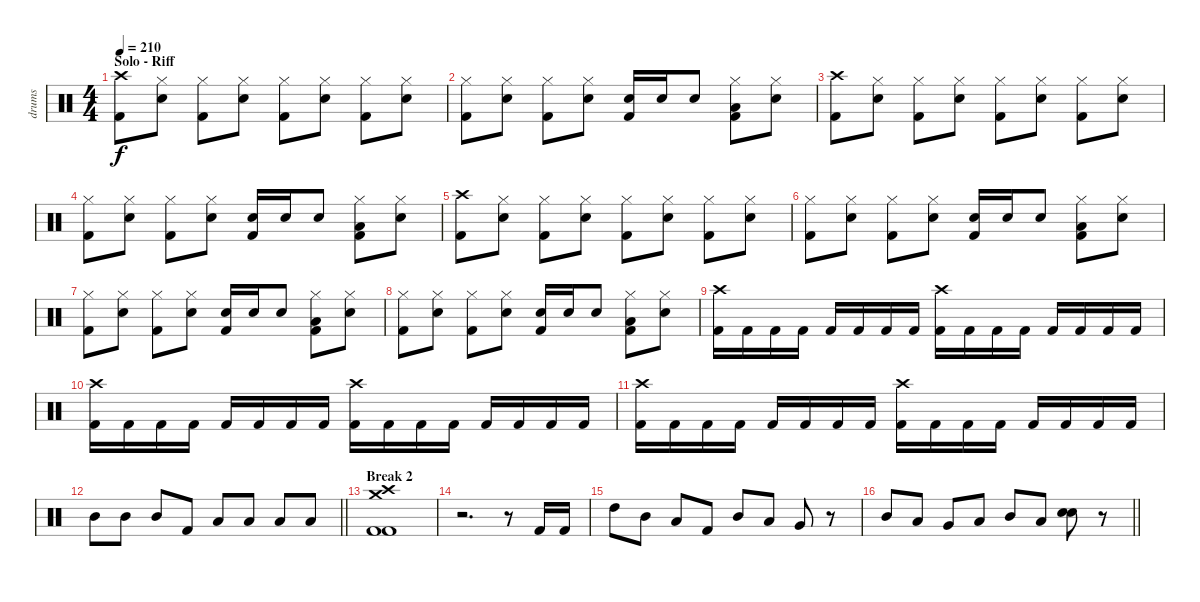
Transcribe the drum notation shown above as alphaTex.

\track ("drums" "drums") {instrument percussion}
\staff {score}
\articulation defaults
\ts (4 4)
\section ("" "Solo - Riff ")
\tempo 210
\clef neutral
\ks c
("Crash high (hit)" "Kick (hit) 2").8{dy f} ("Hi-Hat (closed)" "Electric Snare (hit)").8 ("Hi-Hat (closed)" "Kick (hit) 2").8 ("Hi-Hat (closed)" "Electric Snare (hit)").8 ("Hi-Hat (closed)" "Kick (hit) 2").8 ("Hi-Hat (closed)" "Electric Snare (hit)").8 ("Hi-Hat (closed)" "Kick (hit) 2").8 ("Hi-Hat (closed)" "Electric Snare (hit)").8 |
("Hi-Hat (closed)" "Kick (hit) 2").8 ("Hi-Hat (closed)" "Electric Snare (hit)").8 ("Hi-Hat (closed)" "Kick (hit) 2").8 ("Hi-Hat (closed)" "Electric Snare (hit)").8 ("Electric Snare (hit)" "Kick (hit) 2").16 "Electric Snare (hit)".16 "Electric Snare (hit)".8 ("Hi-Hat (closed)" "Low Floor Tom (hit)" "Kick (hit) 2").8 ("Hi-Hat (closed)" "Electric Snare (hit)").8 |
("Crash high (hit)" "Kick (hit) 2").8 ("Hi-Hat (closed)" "Electric Snare (hit)").8 ("Hi-Hat (closed)" "Kick (hit) 2").8 ("Hi-Hat (closed)" "Electric Snare (hit)").8 ("Hi-Hat (closed)" "Kick (hit) 2").8 ("Hi-Hat (closed)" "Electric Snare (hit)").8 ("Hi-Hat (closed)" "Kick (hit) 2").8 ("Hi-Hat (closed)" "Electric Snare (hit)").8 |
("Hi-Hat (closed)" "Kick (hit) 2").8 ("Hi-Hat (closed)" "Electric Snare (hit)").8 ("Hi-Hat (closed)" "Kick (hit) 2").8 ("Hi-Hat (closed)" "Electric Snare (hit)").8 ("Electric Snare (hit)" "Kick (hit) 2").16 "Electric Snare (hit)".16 "Electric Snare (hit)".8 ("Hi-Hat (closed)" "Low Floor Tom (hit)" "Kick (hit) 2").8 ("Hi-Hat (closed)" "Electric Snare (hit)").8 |
("Crash high (hit)" "Kick (hit) 2").8 ("Hi-Hat (closed)" "Electric Snare (hit)").8 ("Hi-Hat (closed)" "Kick (hit) 2").8 ("Hi-Hat (closed)" "Electric Snare (hit)").8 ("Hi-Hat (closed)" "Kick (hit) 2").8 ("Hi-Hat (closed)" "Electric Snare (hit)").8 ("Hi-Hat (closed)" "Kick (hit) 2").8 ("Hi-Hat (closed)" "Electric Snare (hit)").8 |
("Hi-Hat (closed)" "Kick (hit) 2").8 ("Hi-Hat (closed)" "Electric Snare (hit)").8 ("Hi-Hat (closed)" "Kick (hit) 2").8 ("Hi-Hat (closed)" "Electric Snare (hit)").8 ("Electric Snare (hit)" "Kick (hit) 2").16 "Electric Snare (hit)".16 "Electric Snare (hit)".8 ("Hi-Hat (closed)" "Low Floor Tom (hit)" "Kick (hit) 2").8 ("Hi-Hat (closed)" "Electric Snare (hit)").8 |
("Hi-Hat (closed)" "Kick (hit) 2").8 ("Hi-Hat (closed)" "Electric Snare (hit)").8 ("Hi-Hat (closed)" "Kick (hit) 2").8 ("Hi-Hat (closed)" "Electric Snare (hit)").8 ("Electric Snare (hit)" "Kick (hit) 2").16 "Electric Snare (hit)".16 "Electric Snare (hit)".8 ("Hi-Hat (closed)" "Low Floor Tom (hit)" "Kick (hit) 2").8 ("Hi-Hat (closed)" "Electric Snare (hit)").8 |
("Hi-Hat (closed)" "Kick (hit) 2").8 ("Hi-Hat (closed)" "Electric Snare (hit)").8 ("Hi-Hat (closed)" "Kick (hit) 2").8 ("Hi-Hat (closed)" "Electric Snare (hit)").8 ("Electric Snare (hit)" "Kick (hit) 2").16 "Electric Snare (hit)".16 "Electric Snare (hit)".8 ("Hi-Hat (closed)" "Low Floor Tom (hit)" "Kick (hit) 2").8 ("Hi-Hat (closed)" "Electric Snare (hit)").8 |
("Crash high (hit)" "Kick (hit) 2").16 "Kick (hit) 2".16 "Kick (hit) 2".16 "Kick (hit) 2".16 "Kick (hit) 2".16 "Kick (hit) 2".16 "Kick (hit) 2".16 "Kick (hit) 2".16 ("Crash high (hit)" "Kick (hit) 2").16 "Kick (hit) 2".16 "Kick (hit) 2".16 "Kick (hit) 2".16 "Kick (hit) 2".16 "Kick (hit) 2".16 "Kick (hit) 2".16 "Kick (hit) 2".16 |
("Crash high (hit)" "Kick (hit) 2").16 "Kick (hit) 2".16 "Kick (hit) 2".16 "Kick (hit) 2".16 "Kick (hit) 2".16 "Kick (hit) 2".16 "Kick (hit) 2".16 "Kick (hit) 2".16 ("Crash high (hit)" "Kick (hit) 2").16 "Kick (hit) 2".16 "Kick (hit) 2".16 "Kick (hit) 2".16 "Kick (hit) 2".16 "Kick (hit) 2".16 "Kick (hit) 2".16 "Kick (hit) 2".16 |
("Crash high (hit)" "Kick (hit) 2").16 "Kick (hit) 2".16 "Kick (hit) 2".16 "Kick (hit) 2".16 "Kick (hit) 2".16 "Kick (hit) 2".16 "Kick (hit) 2".16 "Kick (hit) 2".16 ("Crash high (hit)" "Kick (hit) 2").16 "Kick (hit) 2".16 "Kick (hit) 2".16 "Kick (hit) 2".16 "Kick (hit) 2".16 "Kick (hit) 2".16 "Kick (hit) 2".16 "Kick (hit) 2".16 |
\barLineRight lightlight "Mid Tom (hit)".8 "Mid Tom (hit)".8 "Mid Tom (hit)".8 "Kick (hit) 2".8 "Low Tom (hit)".8 "Low Tom (hit)".8 "Low Tom (hit)".8 "Low Tom (hit)".8
|
\section ("" "Break 2")
("Crash high (hit)" "Crash medium (hit)" "Kick (hit) 2" "Kick (hit) 2").1 |
r.2{d} r.8 "Kick (hit) 2".16 "Kick (hit) 2".16 |
"High Tom (hit)".8 "Mid Tom (hit)".8 "Low Tom (hit)".8 "Kick (hit) 2".8 "Mid Tom (hit)".8 "Low Tom (hit)".8 "Very Low Tom (hit)".8 r.8 |
\barLineRight lightlight "Mid Tom (hit)".8 "Low Tom (hit)".8 "Very Low Tom (hit)".8 "Low Floor Tom (hit)".8 "Mid Tom (hit)".8 "Low Tom (hit)".8
("Electric Snare (hit)" "Electric Snare (hit)").8 r.8
